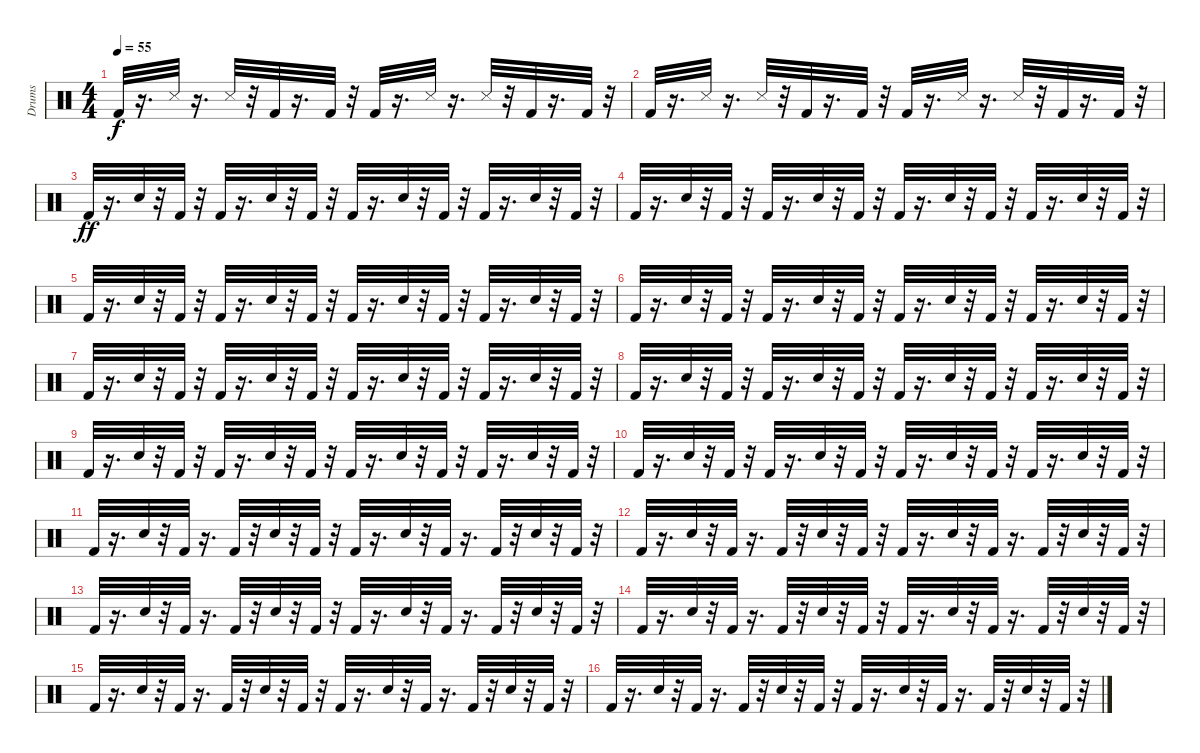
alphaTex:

\track ("Drums               " "Drums     ") {instrument percussion}
\staff {score}
\articulation defaults
\ts (4 4)
\tempo 55
\clef neutral
\ks c "Kick (hit) 2".32{dy f}
r.16{d} "Snare (side stick) 3".32 r.16{d} "Snare (side stick) 3".32 r.32 "Kick (hit) 2".32 r.16{d} "Kick (hit) 2".32 r.32 "Kick (hit) 2".32 r.16{d} "Snare (side stick) 3".32 r.16{d} "Snare (side stick) 3".32 r.32 "Kick (hit) 2".32 r.16{d} "Kick (hit) 2".32 r.32 |
"Kick (hit) 2".32 r.16{d} "Snare (side stick) 3".32 r.16{d} "Snare (side stick) 3".32 r.32 "Kick (hit) 2".32 r.16{d} "Kick (hit) 2".32 r.32 "Kick (hit) 2".32 r.16{d} "Snare (side stick) 3".32 r.16{d} "Snare (side stick) 3".32 r.32 "Kick (hit) 2".32 r.16{d} "Kick (hit) 2".32 r.32 |
"Kick (hit) 2".32{dy ff} r.16{d} "Snare (hit) 2".32 r.32 "Kick (hit) 2".32 r.32 "Kick (hit) 2".32 r.16{d} "Snare (hit) 2".32 r.32 "Kick (hit) 2".32 r.32 "Kick (hit) 2".32 r.16{d} "Snare (hit) 2".32 r.32 "Kick (hit) 2".32 r.32 "Kick (hit) 2".32 r.16{d} "Snare (hit) 2".32 r.32 "Kick (hit) 2".32 r.32 |
"Kick (hit) 2".32 r.16{d} "Snare (hit) 2".32 r.32 "Kick (hit) 2".32 r.32 "Kick (hit) 2".32 r.16{d} "Snare (hit) 2".32 r.32 "Kick (hit) 2".32 r.32 "Kick (hit) 2".32 r.16{d} "Snare (hit) 2".32 r.32 "Kick (hit) 2".32 r.32 "Kick (hit) 2".32 r.16{d} "Snare (hit) 2".32 r.32 "Kick (hit) 2".32 r.32 |
"Kick (hit) 2".32 r.16{d} "Snare (hit) 2".32 r.32 "Kick (hit) 2".32 r.32 "Kick (hit) 2".32 r.16{d} "Snare (hit) 2".32 r.32 "Kick (hit) 2".32 r.32 "Kick (hit) 2".32 r.16{d} "Snare (hit) 2".32 r.32 "Kick (hit) 2".32 r.32 "Kick (hit) 2".32 r.16{d} "Snare (hit) 2".32 r.32 "Kick (hit) 2".32 r.32 |
"Kick (hit) 2".32 r.16{d} "Snare (hit) 2".32 r.32 "Kick (hit) 2".32 r.32 "Kick (hit) 2".32 r.16{d} "Snare (hit) 2".32 r.32 "Kick (hit) 2".32 r.32 "Kick (hit) 2".32 r.16{d} "Snare (hit) 2".32 r.32 "Kick (hit) 2".32 r.32 "Kick (hit) 2".32 r.16{d} "Snare (hit) 2".32 r.32 "Kick (hit) 2".32 r.32 |
"Kick (hit) 2".32 r.16{d} "Snare (hit) 2".32 r.32 "Kick (hit) 2".32 r.32 "Kick (hit) 2".32 r.16{d} "Snare (hit) 2".32 r.32 "Kick (hit) 2".32 r.32 "Kick (hit) 2".32 r.16{d} "Snare (hit) 2".32 r.32 "Kick (hit) 2".32 r.32 "Kick (hit) 2".32 r.16{d} "Snare (hit) 2".32 r.32 "Kick (hit) 2".32 r.32 |
"Kick (hit) 2".32 r.16{d} "Snare (hit) 2".32 r.32 "Kick (hit) 2".32 r.32 "Kick (hit) 2".32 r.16{d} "Snare (hit) 2".32 r.32 "Kick (hit) 2".32 r.32 "Kick (hit) 2".32 r.16{d} "Snare (hit) 2".32 r.32 "Kick (hit) 2".32 r.32 "Kick (hit) 2".32 r.16{d} "Snare (hit) 2".32 r.32 "Kick (hit) 2".32 r.32 |
"Kick (hit) 2".32 r.16{d} "Snare (hit) 2".32 r.32 "Kick (hit) 2".32 r.32 "Kick (hit) 2".32 r.16{d} "Snare (hit) 2".32 r.32 "Kick (hit) 2".32 r.32 "Kick (hit) 2".32 r.16{d} "Snare (hit) 2".32 r.32 "Kick (hit) 2".32 r.32 "Kick (hit) 2".32 r.16{d} "Snare (hit) 2".32 r.32 "Kick (hit) 2".32 r.32 |
"Kick (hit) 2".32 r.16{d} "Snare (hit) 2".32 r.32 "Kick (hit) 2".32 r.32 "Kick (hit) 2".32 r.16{d} "Snare (hit) 2".32 r.32 "Kick (hit) 2".32 r.32 "Kick (hit) 2".32 r.16{d} "Snare (hit) 2".32 r.32 "Kick (hit) 2".32 r.32 "Kick (hit) 2".32 r.16{d} "Snare (hit) 2".32 r.32 "Kick (hit) 2".32 r.32 |
"Kick (hit) 2".32 r.16{d} "Snare (hit) 2".32 r.32 "Kick (hit) 2".32 r.16{d} "Kick (hit) 2".32 r.32 "Snare (hit) 2".32 r.32 "Kick (hit) 2".32 r.32 "Kick (hit) 2".32 r.16{d} "Snare (hit) 2".32 r.32 "Kick (hit) 2".32 r.16{d} "Kick (hit) 2".32 r.32 "Snare (hit) 2".32 r.32 "Kick (hit) 2".32 r.32 |
"Kick (hit) 2".32 r.16{d} "Snare (hit) 2".32 r.32 "Kick (hit) 2".32 r.16{d} "Kick (hit) 2".32 r.32 "Snare (hit) 2".32 r.32 "Kick (hit) 2".32 r.32 "Kick (hit) 2".32 r.16{d} "Snare (hit) 2".32 r.32 "Kick (hit) 2".32 r.16{d} "Kick (hit) 2".32 r.32 "Snare (hit) 2".32 r.32 "Kick (hit) 2".32 r.32 |
"Kick (hit) 2".32 r.16{d} "Snare (hit) 2".32 r.32 "Kick (hit) 2".32 r.16{d} "Kick (hit) 2".32 r.32 "Snare (hit) 2".32 r.32 "Kick (hit) 2".32 r.32 "Kick (hit) 2".32 r.16{d} "Snare (hit) 2".32 r.32 "Kick (hit) 2".32 r.16{d} "Kick (hit) 2".32 r.32 "Snare (hit) 2".32 r.32 "Kick (hit) 2".32 r.32 |
"Kick (hit) 2".32 r.16{d} "Snare (hit) 2".32 r.32 "Kick (hit) 2".32 r.16{d} "Kick (hit) 2".32 r.32 "Snare (hit) 2".32 r.32 "Kick (hit) 2".32 r.32 "Kick (hit) 2".32 r.16{d} "Snare (hit) 2".32 r.32 "Kick (hit) 2".32 r.16{d} "Kick (hit) 2".32 r.32 "Snare (hit) 2".32 r.32 "Kick (hit) 2".32 r.32 |
"Kick (hit) 2".32 r.16{d} "Snare (hit) 2".32 r.32 "Kick (hit) 2".32 r.16{d} "Kick (hit) 2".32 r.32 "Snare (hit) 2".32 r.32 "Kick (hit) 2".32 r.32 "Kick (hit) 2".32 r.16{d} "Snare (hit) 2".32 r.32 "Kick (hit) 2".32 r.16{d} "Kick (hit) 2".32 r.32 "Snare (hit) 2".32 r.32 "Kick (hit) 2".32 r.32 |
"Kick (hit) 2".32 r.16{d} "Snare (hit) 2".32 r.32 "Kick (hit) 2".32 r.16{d} "Kick (hit) 2".32 r.32 "Snare (hit) 2".32 r.32 "Kick (hit) 2".32 r.32 "Kick (hit) 2".32 r.16{d} "Snare (hit) 2".32 r.32 "Kick (hit) 2".32 r.16{d} "Kick (hit) 2".32 r.32 "Snare (hit) 2".32 r.32 "Kick (hit) 2".32 r.32
